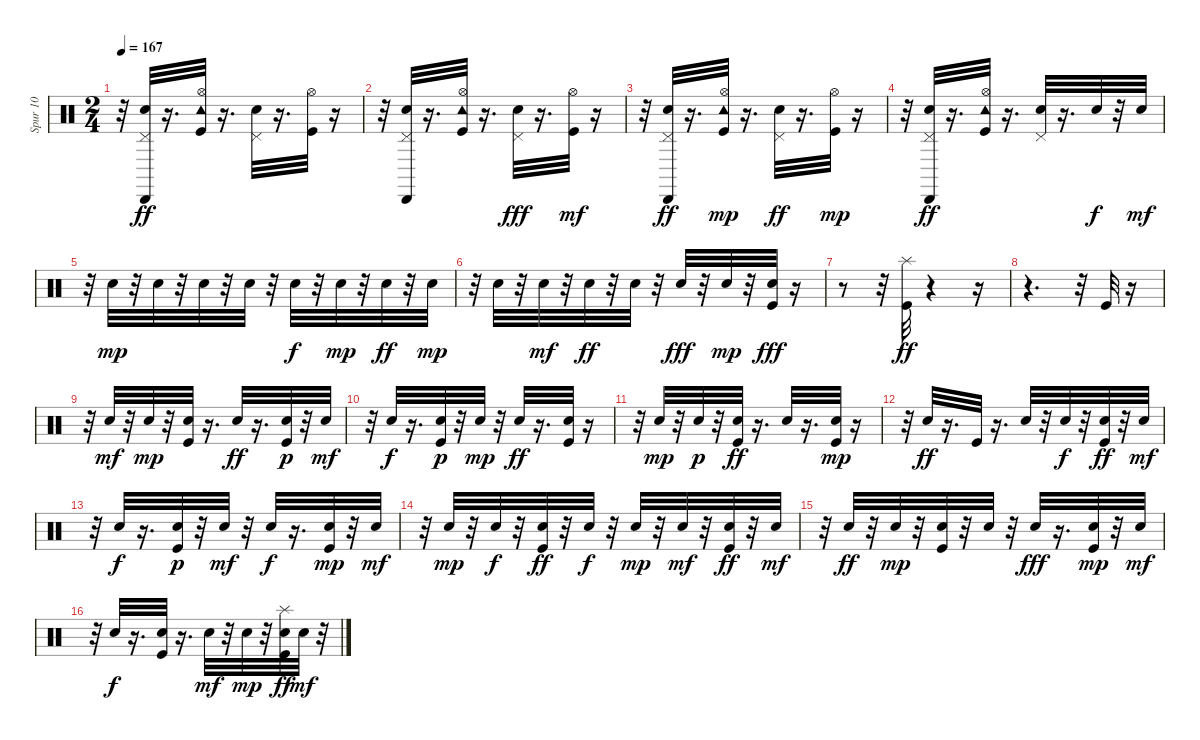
\track ("Spur 10" "Spur 10") {instrument percussion}
\staff {score}
\articulation defaults
\ts (2 4)
\tempo 167
\clef neutral
\ks c
r.32{dy ff} ("Snare (hit) 2" "Pedal Hi-Hat (hit)" "Cabasa (hit)").32 r.16{d} ("Kick (hit)" "Tambourine (hit)" "Hi-Hat (open)").32 r.16{d} ("Pedal Hi-Hat (hit)" "Snare (hit) 2").32 r.16{d} ("Hi-Hat (open)" "Kick (hit)").32 r.16 |
r.32 ("Cabasa (hit)" "Snare (hit) 2" "Pedal Hi-Hat (hit)").32 r.16{d} ("Tambourine (hit)" "Hi-Hat (open)" "Kick (hit)").32 r.16{d} ("Snare (hit) 2" "Pedal Hi-Hat (hit)").32{dy fff} r.16{d} ("Kick (hit)" "Hi-Hat (open)").32{dy mf} r.16 |
r.32 ("Cabasa (hit)" "Pedal Hi-Hat (hit)" "Snare (hit) 2").32{dy ff} r.16{d} ("Hi-Hat (open)" "Tambourine (hit)" "Kick (hit)").32{dy mp} r.16{d} ("Pedal Hi-Hat (hit)" "Snare (hit) 2").32{dy ff} r.16{d} ("Kick (hit)" "Hi-Hat (open)").32{dy mp} r.16 |
r.32 ("Cabasa (hit)" "Snare (hit) 2" "Pedal Hi-Hat (hit)").32{dy ff} r.16{d} ("Hi-Hat (open)" "Kick (hit)" "Tambourine (hit)").32 r.16{d} ("Pedal Hi-Hat (hit)" "Snare (hit) 2").32 r.16{d} "Electric Snare (hit)".32{dy f} r.32 "Snare (hit) 2".32{dy mf} |
r.32 "Snare (hit) 2".32{dy mp} r.32 "Snare (hit) 2".32 r.32 "Snare (hit) 2".32 r.32 "Snare (hit) 2".32 r.32 "Electric Snare (hit)".32{dy f} r.32 "Snare (hit) 2".32{dy mp} r.32 "Electric Snare (hit)".32{dy ff} r.32 "Snare (hit) 2".32{dy mp} |
r.32 "Snare (hit) 2".32 r.32 "Snare (hit) 2".32{dy mf} r.32 "Electric Snare (hit)".32{dy ff} r.32 "Electric Snare (hit)".32 r.32 "Snare (hit) 2".32{dy fff} r.32 "Snare (hit) 2".32{dy mp} r.32 ("Kick (hit)" "Electric Snare (hit)").32{dy fff} r.16 |
r.8 r.32 ("Kick (hit)" "Splash (hit)").32{dy ff} r.4 r.16 |
r.4{d} r.32 "Kick (hit)".32 r.16 |
r.32 "Snare (hit) 2".32{dy mf} r.32 "Snare (hit) 2".32{dy mp} r.32 ("Kick (hit)" "Snare (hit) 2").32 r.16{d} "Snare (hit) 2".32{dy ff} r.16{d} ("Kick (hit)" "Snare (hit) 2").32{dy p} r.32 "Snare (hit) 2".32{dy mf} |
r.32 "Snare (hit) 2".32{dy f} r.16{d} ("Kick (hit)" "Snare (hit) 2").32{dy p} r.32 "Snare (hit) 2".32{dy mp} r.32 "Snare (hit) 2".32{dy ff} r.16{d} ("Snare (hit) 2" "Kick (hit)").32 r.16 |
r.32 "Snare (hit) 2".32{dy mp} r.32 "Snare (hit) 2".32{dy p} r.32 ("Snare (hit) 2" "Kick (hit)").32{dy ff} r.16{d} "Snare (hit) 2".32 r.16{d} ("Kick (hit)" "Snare (hit) 2").32{dy mp} r.16 |
r.32 "Snare (hit) 2".32{dy ff} r.16{d} "Kick (hit)".32 r.16{d} "Snare (hit) 2".32 r.32 "Snare (hit) 2".32{dy f} r.32 ("Snare (hit) 2" "Kick (hit)").32{dy ff} r.32 "Snare (hit) 2".32{dy mf} |
r.32 "Snare (hit) 2".32{dy f} r.16{d} ("Kick (hit)" "Snare (hit) 2").32{dy p} r.32 "Snare (hit) 2".32{dy mf} r.32 "Snare (hit) 2".32{dy f} r.16{d} ("Snare (hit) 2" "Kick (hit)").32{dy mp} r.32 "Snare (hit) 2".32{dy mf} |
r.32 "Snare (hit) 2".32{dy mp} r.32 "Snare (hit) 2".32{dy f} r.32 ("Snare (hit) 2" "Kick (hit)").32{dy ff} r.32 "Snare (hit) 2".32{dy f} r.32 "Snare (hit) 2".32{dy mp} r.32 "Snare (hit) 2".32{dy mf} r.32 ("Snare (hit) 2" "Kick (hit)").32{dy ff} r.32 "Snare (hit) 2".32{dy mf} |
r.32 "Snare (hit) 2".32{dy ff} r.32 "Snare (hit) 2".32{dy mp} r.32 ("Kick (hit)" "Snare (hit) 2").32 r.32 "Snare (hit) 2".32 r.32 "Snare (hit) 2".32{dy fff} r.16{d} ("Kick (hit)" "Snare (hit) 2").32{dy mp} r.32 "Snare (hit) 2".32{dy mf} |
r.32 "Snare (hit) 2".32{dy f} r.16{d} ("Kick (hit)" "Snare (hit) 2").32 r.16{d} "Snare (hit) 2".32{dy mf} r.32 "Snare (hit) 2".32{dy mp} r.32 ("Snare (hit) 2" "Kick (hit)" "Splash (hit)").32{dy ff} "Snare (hit) 2".32{dy mf} r.32
